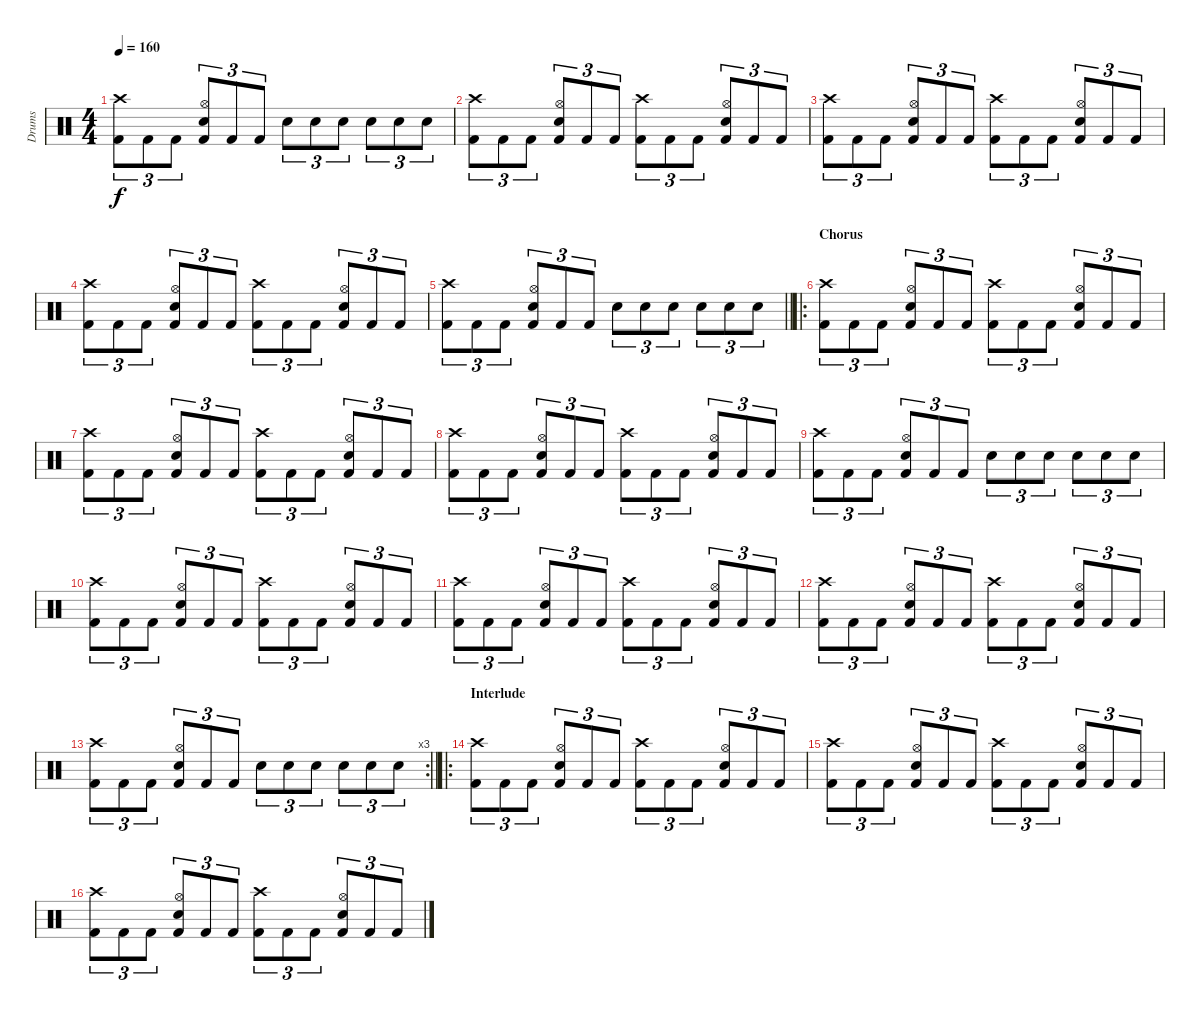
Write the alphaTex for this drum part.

\track ("Drums" "Drums") {instrument percussion}
\staff {score}
\articulation defaults
\ts (4 4)
\tempo 160
\clef neutral
\ks c
("Crash high (hit)" "Kick (hit) 2").8{tu (3 2) dy f} "Kick (hit) 2".8{tu (3 2)} "Kick (hit) 2".8{tu (3 2)} ("Hi-Hat (open)" "Snare (hit) 2" "Kick (hit) 2").8{tu (3 2)} "Kick (hit) 2".8{tu (3 2)} "Kick (hit) 2".8{tu (3 2)} "Snare (hit) 2".8{tu (3 2)} "Snare (hit) 2".8{tu (3 2)} "Snare (hit) 2".8{tu (3 2)} "Snare (hit) 2".8{tu (3 2)} "Snare (hit) 2".8{tu (3 2)} "Snare (hit) 2".8{tu (3 2)} |
("Crash high (hit)" "Kick (hit) 2").8{tu (3 2)} "Kick (hit) 2".8{tu (3 2)} "Kick (hit) 2".8{tu (3 2)} ("Hi-Hat (open)" "Snare (hit) 2" "Kick (hit) 2").8{tu (3 2)} "Kick (hit) 2".8{tu (3 2)} "Kick (hit) 2".8{tu (3 2)} ("Crash high (hit)" "Kick (hit) 2").8{tu (3 2)} "Kick (hit) 2".8{tu (3 2)} "Kick (hit) 2".8{tu (3 2)} ("Hi-Hat (open)" "Snare (hit) 2" "Kick (hit) 2").8{tu (3 2)} "Kick (hit) 2".8{tu (3 2)} "Kick (hit) 2".8{tu (3 2)} |
("Crash high (hit)" "Kick (hit) 2").8{tu (3 2)} "Kick (hit) 2".8{tu (3 2)} "Kick (hit) 2".8{tu (3 2)} ("Hi-Hat (open)" "Snare (hit) 2" "Kick (hit) 2").8{tu (3 2)} "Kick (hit) 2".8{tu (3 2)} "Kick (hit) 2".8{tu (3 2)} ("Crash high (hit)" "Kick (hit) 2").8{tu (3 2)} "Kick (hit) 2".8{tu (3 2)} "Kick (hit) 2".8{tu (3 2)} ("Hi-Hat (open)" "Snare (hit) 2" "Kick (hit) 2").8{tu (3 2)} "Kick (hit) 2".8{tu (3 2)} "Kick (hit) 2".8{tu (3 2)} |
("Crash high (hit)" "Kick (hit) 2").8{tu (3 2)} "Kick (hit) 2".8{tu (3 2)} "Kick (hit) 2".8{tu (3 2)} ("Hi-Hat (open)" "Snare (hit) 2" "Kick (hit) 2").8{tu (3 2)} "Kick (hit) 2".8{tu (3 2)} "Kick (hit) 2".8{tu (3 2)} ("Crash high (hit)" "Kick (hit) 2").8{tu (3 2)} "Kick (hit) 2".8{tu (3 2)} "Kick (hit) 2".8{tu (3 2)} ("Hi-Hat (open)" "Snare (hit) 2" "Kick (hit) 2").8{tu (3 2)} "Kick (hit) 2".8{tu (3 2)} "Kick (hit) 2".8{tu (3 2)} |
\barLineRight lightlight
("Crash high (hit)" "Kick (hit) 2").8{tu (3 2)} "Kick (hit) 2".8{tu (3 2)} "Kick (hit) 2".8{tu (3 2)} ("Hi-Hat (open)" "Snare (hit) 2" "Kick (hit) 2").8{tu (3 2)} "Kick (hit) 2".8{tu (3 2)} "Kick (hit) 2".8{tu (3 2)} "Snare (hit) 2".8{tu (3 2)} "Snare (hit) 2".8{tu (3 2)} "Snare (hit) 2".8{tu (3 2)} "Snare (hit) 2".8{tu (3 2)} "Snare (hit) 2".8{tu (3 2)} "Snare (hit) 2".8{tu (3 2)} |
\ro
\section ("" "Chorus")
("Crash high (hit)" "Kick (hit) 2").8{tu (3 2)} "Kick (hit) 2".8{tu (3 2)} "Kick (hit) 2".8{tu (3 2)} ("Hi-Hat (open)" "Snare (hit) 2" "Kick (hit) 2").8{tu (3 2)} "Kick (hit) 2".8{tu (3 2)} "Kick (hit) 2".8{tu (3 2)} ("Crash high (hit)" "Kick (hit) 2").8{tu (3 2)} "Kick (hit) 2".8{tu (3 2)} "Kick (hit) 2".8{tu (3 2)} ("Hi-Hat (open)" "Snare (hit) 2" "Kick (hit) 2").8{tu (3 2)} "Kick (hit) 2".8{tu (3 2)} "Kick (hit) 2".8{tu (3 2)} |
("Crash high (hit)" "Kick (hit) 2").8{tu (3 2)} "Kick (hit) 2".8{tu (3 2)} "Kick (hit) 2".8{tu (3 2)} ("Hi-Hat (open)" "Snare (hit) 2" "Kick (hit) 2").8{tu (3 2)} "Kick (hit) 2".8{tu (3 2)} "Kick (hit) 2".8{tu (3 2)} ("Crash high (hit)" "Kick (hit) 2").8{tu (3 2)} "Kick (hit) 2".8{tu (3 2)} "Kick (hit) 2".8{tu (3 2)} ("Hi-Hat (open)" "Snare (hit) 2" "Kick (hit) 2").8{tu (3 2)} "Kick (hit) 2".8{tu (3 2)} "Kick (hit) 2".8{tu (3 2)} |
("Crash high (hit)" "Kick (hit) 2").8{tu (3 2)} "Kick (hit) 2".8{tu (3 2)} "Kick (hit) 2".8{tu (3 2)} ("Hi-Hat (open)" "Snare (hit) 2" "Kick (hit) 2").8{tu (3 2)} "Kick (hit) 2".8{tu (3 2)} "Kick (hit) 2".8{tu (3 2)} ("Crash high (hit)" "Kick (hit) 2").8{tu (3 2)} "Kick (hit) 2".8{tu (3 2)} "Kick (hit) 2".8{tu (3 2)} ("Hi-Hat (open)" "Snare (hit) 2" "Kick (hit) 2").8{tu (3 2)} "Kick (hit) 2".8{tu (3 2)} "Kick (hit) 2".8{tu (3 2)} |
("Crash high (hit)" "Kick (hit) 2").8{tu (3 2)} "Kick (hit) 2".8{tu (3 2)} "Kick (hit) 2".8{tu (3 2)} ("Hi-Hat (open)" "Snare (hit) 2" "Kick (hit) 2").8{tu (3 2)} "Kick (hit) 2".8{tu (3 2)} "Kick (hit) 2".8{tu (3 2)} "Snare (hit) 2".8{tu (3 2)} "Snare (hit) 2".8{tu (3 2)} "Snare (hit) 2".8{tu (3 2)} "Snare (hit) 2".8{tu (3 2)} "Snare (hit) 2".8{tu (3 2)} "Snare (hit) 2".8{tu (3 2)} |
("Crash high (hit)" "Kick (hit) 2").8{tu (3 2)} "Kick (hit) 2".8{tu (3 2)} "Kick (hit) 2".8{tu (3 2)} ("Hi-Hat (open)" "Snare (hit) 2" "Kick (hit) 2").8{tu (3 2)} "Kick (hit) 2".8{tu (3 2)} "Kick (hit) 2".8{tu (3 2)} ("Crash high (hit)" "Kick (hit) 2").8{tu (3 2)} "Kick (hit) 2".8{tu (3 2)} "Kick (hit) 2".8{tu (3 2)} ("Hi-Hat (open)" "Snare (hit) 2" "Kick (hit) 2").8{tu (3 2)} "Kick (hit) 2".8{tu (3 2)} "Kick (hit) 2".8{tu (3 2)} |
("Crash high (hit)" "Kick (hit) 2").8{tu (3 2)} "Kick (hit) 2".8{tu (3 2)} "Kick (hit) 2".8{tu (3 2)} ("Hi-Hat (open)" "Snare (hit) 2" "Kick (hit) 2").8{tu (3 2)} "Kick (hit) 2".8{tu (3 2)} "Kick (hit) 2".8{tu (3 2)} ("Crash high (hit)" "Kick (hit) 2").8{tu (3 2)} "Kick (hit) 2".8{tu (3 2)} "Kick (hit) 2".8{tu (3 2)} ("Hi-Hat (open)" "Snare (hit) 2" "Kick (hit) 2").8{tu (3 2)} "Kick (hit) 2".8{tu (3 2)} "Kick (hit) 2".8{tu (3 2)} |
("Crash high (hit)" "Kick (hit) 2").8{tu (3 2)} "Kick (hit) 2".8{tu (3 2)} "Kick (hit) 2".8{tu (3 2)} ("Hi-Hat (open)" "Snare (hit) 2" "Kick (hit) 2").8{tu (3 2)} "Kick (hit) 2".8{tu (3 2)} "Kick (hit) 2".8{tu (3 2)} ("Crash high (hit)" "Kick (hit) 2").8{tu (3 2)} "Kick (hit) 2".8{tu (3 2)} "Kick (hit) 2".8{tu (3 2)} ("Hi-Hat (open)" "Snare (hit) 2" "Kick (hit) 2").8{tu (3 2)} "Kick (hit) 2".8{tu (3 2)} "Kick (hit) 2".8{tu (3 2)} |
\rc 3
\barLineRight lightlight
("Crash high (hit)" "Kick (hit) 2").8{tu (3 2)} "Kick (hit) 2".8{tu (3 2)} "Kick (hit) 2".8{tu (3 2)} ("Hi-Hat (open)" "Snare (hit) 2" "Kick (hit) 2").8{tu (3 2)} "Kick (hit) 2".8{tu (3 2)} "Kick (hit) 2".8{tu (3 2)} "Snare (hit) 2".8{tu (3 2)} "Snare (hit) 2".8{tu (3 2)} "Snare (hit) 2".8{tu (3 2)} "Snare (hit) 2".8{tu (3 2)} "Snare (hit) 2".8{tu (3 2)} "Snare (hit) 2".8{tu (3 2)} |
\ro
\section ("" "Interlude")
("Crash high (hit)" "Kick (hit) 2").8{tu (3 2)} "Kick (hit) 2".8{tu (3 2)} "Kick (hit) 2".8{tu (3 2)} ("Hi-Hat (open)" "Snare (hit) 2" "Kick (hit) 2").8{tu (3 2)} "Kick (hit) 2".8{tu (3 2)} "Kick (hit) 2".8{tu (3 2)} ("Crash high (hit)" "Kick (hit) 2").8{tu (3 2)} "Kick (hit) 2".8{tu (3 2)} "Kick (hit) 2".8{tu (3 2)} ("Hi-Hat (open)" "Snare (hit) 2" "Kick (hit) 2").8{tu (3 2)} "Kick (hit) 2".8{tu (3 2)} "Kick (hit) 2".8{tu (3 2)} |
("Crash high (hit)" "Kick (hit) 2").8{tu (3 2)} "Kick (hit) 2".8{tu (3 2)} "Kick (hit) 2".8{tu (3 2)} ("Hi-Hat (open)" "Snare (hit) 2" "Kick (hit) 2").8{tu (3 2)} "Kick (hit) 2".8{tu (3 2)} "Kick (hit) 2".8{tu (3 2)} ("Crash high (hit)" "Kick (hit) 2").8{tu (3 2)} "Kick (hit) 2".8{tu (3 2)} "Kick (hit) 2".8{tu (3 2)} ("Hi-Hat (open)" "Snare (hit) 2" "Kick (hit) 2").8{tu (3 2)} "Kick (hit) 2".8{tu (3 2)} "Kick (hit) 2".8{tu (3 2)} |
("Crash high (hit)" "Kick (hit) 2").8{tu (3 2)} "Kick (hit) 2".8{tu (3 2)} "Kick (hit) 2".8{tu (3 2)} ("Hi-Hat (open)" "Snare (hit) 2" "Kick (hit) 2").8{tu (3 2)} "Kick (hit) 2".8{tu (3 2)} "Kick (hit) 2".8{tu (3 2)} ("Crash high (hit)" "Kick (hit) 2").8{tu (3 2)} "Kick (hit) 2".8{tu (3 2)} "Kick (hit) 2".8{tu (3 2)} ("Hi-Hat (open)" "Snare (hit) 2" "Kick (hit) 2").8{tu (3 2)} "Kick (hit) 2".8{tu (3 2)} "Kick (hit) 2".8{tu (3 2)}
